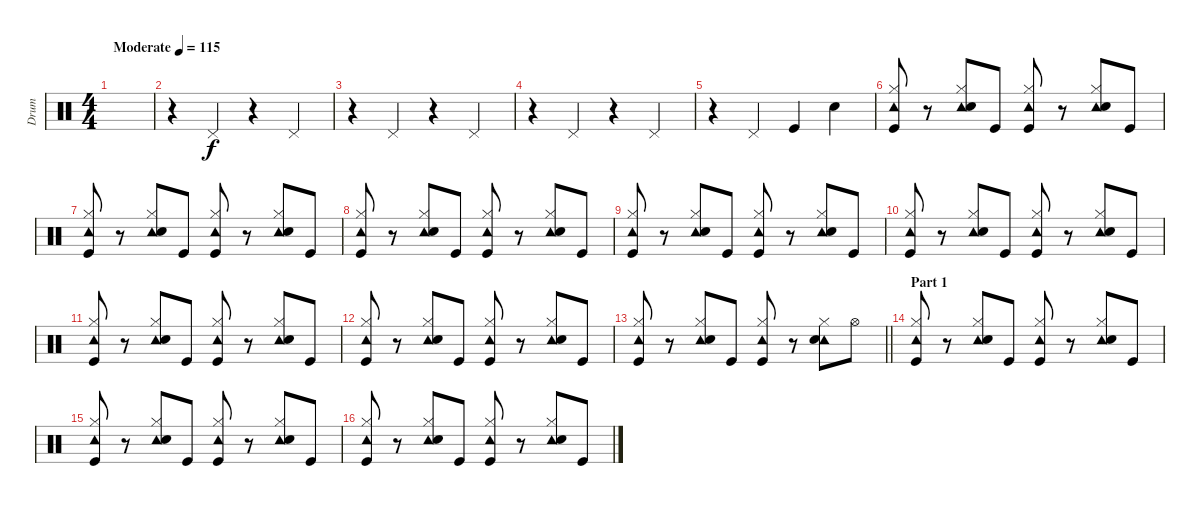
\track ("Drum" "Drum") {instrument percussion}
\staff {score}
\articulation defaults
\ts (4 4)
\tempo (115 "Moderate")
\clef neutral
\ks c
|
r.4 "Pedal Hi-Hat (hit)".4 r.4 "Pedal Hi-Hat (hit)".4 |
r.4 "Pedal Hi-Hat (hit)".4 r.4 "Pedal Hi-Hat (hit)".4 |
r.4 "Pedal Hi-Hat (hit)".4 r.4 "Pedal Hi-Hat (hit)".4 |
r.4 "Pedal Hi-Hat (hit)".4 "Kick (hit)".4 "Snare (hit) 2".4 |
("Hi-Hat (closed)" "Tambourine (hit)" "Kick (hit)").8 r.8 ("Hi-Hat (closed)" "Tambourine (hit)" "Snare (hit) 2").8 "Kick (hit)".8 ("Hi-Hat (closed)" "Tambourine (hit)" "Kick (hit)").8 r.8 ("Hi-Hat (closed)" "Tambourine (hit)" "Snare (hit) 2").8 "Kick (hit)".8 |
("Hi-Hat (closed)" "Tambourine (hit)" "Kick (hit)").8 r.8 ("Hi-Hat (closed)" "Tambourine (hit)" "Snare (hit) 2").8 "Kick (hit)".8 ("Hi-Hat (closed)" "Tambourine (hit)" "Kick (hit)").8 r.8 ("Hi-Hat (closed)" "Tambourine (hit)" "Snare (hit) 2").8 "Kick (hit)".8 |
("Hi-Hat (closed)" "Tambourine (hit)" "Kick (hit)").8 r.8 ("Hi-Hat (closed)" "Tambourine (hit)" "Snare (hit) 2").8 "Kick (hit)".8 ("Hi-Hat (closed)" "Tambourine (hit)" "Kick (hit)").8 r.8 ("Hi-Hat (closed)" "Tambourine (hit)" "Snare (hit) 2").8 "Kick (hit)".8 |
("Hi-Hat (closed)" "Tambourine (hit)" "Kick (hit)").8 r.8 ("Hi-Hat (closed)" "Tambourine (hit)" "Snare (hit) 2").8 "Kick (hit)".8 ("Hi-Hat (closed)" "Tambourine (hit)" "Kick (hit)").8 r.8 ("Hi-Hat (closed)" "Tambourine (hit)" "Snare (hit) 2").8 "Kick (hit)".8 |
("Hi-Hat (closed)" "Tambourine (hit)" "Kick (hit)").8 r.8 ("Hi-Hat (closed)" "Tambourine (hit)" "Snare (hit) 2").8 "Kick (hit)".8 ("Hi-Hat (closed)" "Tambourine (hit)" "Kick (hit)").8 r.8 ("Hi-Hat (closed)" "Tambourine (hit)" "Snare (hit) 2").8 "Kick (hit)".8 |
("Hi-Hat (closed)" "Tambourine (hit)" "Kick (hit)").8 r.8 ("Hi-Hat (closed)" "Tambourine (hit)" "Snare (hit) 2").8 "Kick (hit)".8 ("Hi-Hat (closed)" "Tambourine (hit)" "Kick (hit)").8 r.8 ("Hi-Hat (closed)" "Tambourine (hit)" "Snare (hit) 2").8 "Kick (hit)".8 |
("Hi-Hat (closed)" "Tambourine (hit)" "Kick (hit)").8 r.8 ("Hi-Hat (closed)" "Tambourine (hit)" "Snare (hit) 2").8 "Kick (hit)".8 ("Hi-Hat (closed)" "Tambourine (hit)" "Kick (hit)").8 r.8 ("Hi-Hat (closed)" "Tambourine (hit)" "Snare (hit) 2").8 "Kick (hit)".8 |
\barLineRight lightlight
("Hi-Hat (closed)" "Tambourine (hit)" "Kick (hit)").8 r.8 ("Hi-Hat (closed)" "Tambourine (hit)" "Snare (hit) 2").8 "Kick (hit)".8 ("Hi-Hat (closed)" "Tambourine (hit)" "Kick (hit)").8 r.8 ("Hi-Hat (closed)" "Tambourine (hit)" "Snare (hit) 2").8 "Hi-Hat (open)".8 |
\section ("" "Part 1")
("Hi-Hat (closed)" "Tambourine (hit)" "Kick (hit)").8 r.8 ("Hi-Hat (closed)" "Tambourine (hit)" "Snare (hit) 2").8 "Kick (hit)".8 ("Hi-Hat (closed)" "Tambourine (hit)" "Kick (hit)").8 r.8 ("Hi-Hat (closed)" "Tambourine (hit)" "Snare (hit) 2").8 "Kick (hit)".8 |
("Hi-Hat (closed)" "Tambourine (hit)" "Kick (hit)").8 r.8 ("Hi-Hat (closed)" "Tambourine (hit)" "Snare (hit) 2").8 "Kick (hit)".8 ("Hi-Hat (closed)" "Tambourine (hit)" "Kick (hit)").8 r.8 ("Hi-Hat (closed)" "Tambourine (hit)" "Snare (hit) 2").8 "Kick (hit)".8 |
("Hi-Hat (closed)" "Tambourine (hit)" "Kick (hit)").8 r.8 ("Hi-Hat (closed)" "Tambourine (hit)" "Snare (hit) 2").8 "Kick (hit)".8 ("Hi-Hat (closed)" "Tambourine (hit)" "Kick (hit)").8 r.8 ("Hi-Hat (closed)" "Tambourine (hit)" "Snare (hit) 2").8 "Kick (hit)".8
